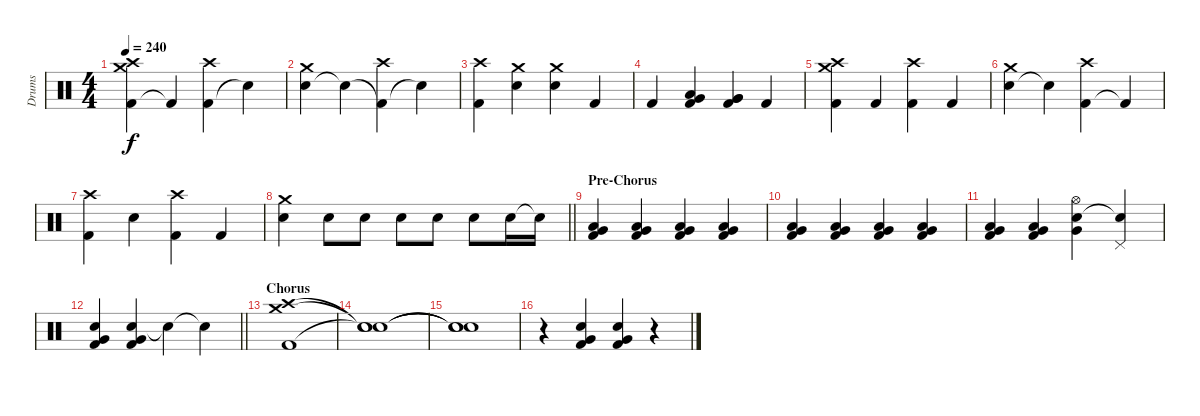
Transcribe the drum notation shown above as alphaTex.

\track ("Drums" "Drums") {instrument percussion}
\staff {score}
\articulation defaults
\ts (4 4)
\tempo 240
\clef neutral
\ks c
("Kick (hit) 2" "Crash medium (hit)" "Crash high (hit)").4{dy f} "Kick (hit) 2"{t}.4 ("Kick (hit) 2" "Crash high (hit)").4 "Snare (hit)"{t}.4 |
("Electric Snare (hit)" "Crash medium (hit)").4 "Snare (hit)"{t}.4 ("Kick (hit) 2"{t} "Crash high (hit)").4 "Snare (hit)"{t}.4 |
("Kick (hit) 2" "Crash high (hit)").4 ("Electric Snare (hit)" "Crash medium (hit)").4 ("Electric Snare (hit)" "Crash medium (hit)").4 "Kick (hit) 2".4 |
"Kick (hit) 2".4 ("Low Tom (hit)" "Very Low Tom (hit)" "Kick (hit) 2").4 ("Very Low Tom (hit)" "Very Low Tom (hit)" "Kick (hit) 2").4 "Kick (hit) 2".4 |
("Kick (hit) 2" "Crash medium (hit)" "Crash high (hit)").4 "Kick (hit) 2".4 ("Kick (hit) 2" "Crash high (hit)").4 "Kick (hit) 2".4 |
("Electric Snare (hit)" "Crash medium (hit)").4 "Snare (hit)"{t}.4 ("Kick (hit) 2" "Crash high (hit)").4 "Kick (hit) 2"{t}.4 |
("Kick (hit) 2" "Crash high (hit)").4 "Electric Snare (hit)".4 ("Kick (hit) 2" "Crash high (hit)").4 "Kick (hit) 2".4 |
\barLineRight lightlight
("Electric Snare (hit)" "Crash medium (hit)").4 "Electric Snare (hit)".8 "Electric Snare (hit)".8 "Electric Snare (hit)".8 "Electric Snare (hit)".8 "Electric Snare (hit)".8 "Electric Snare (hit)".16 "Snare (hit)"{t}.16{volume 7} |
\section ("" "Pre-Chorus")
("Very Low Tom (hit)" "Low Tom (hit)" "Kick (hit) 2").4{volume 13} ("Very Low Tom (hit)" "Low Tom (hit)" "Kick (hit) 2").4 ("Very Low Tom (hit)" "Low Tom (hit)" "Kick (hit) 2").4 ("Very Low Tom (hit)" "Low Tom (hit)" "Kick (hit) 2").4 |
("Very Low Tom (hit)" "Low Tom (hit)" "Kick (hit) 2").4 ("Very Low Tom (hit)" "Low Tom (hit)" "Kick (hit) 2").4 ("Very Low Tom (hit)" "Low Tom (hit)" "Kick (hit) 2").4 ("Very Low Tom (hit)" "Low Tom (hit)" "Kick (hit) 2").4 |
("Very Low Tom (hit)" "Low Tom (hit)" "Kick (hit) 2").4 ("Very Low Tom (hit)" "Low Tom (hit)" "Kick (hit) 2").4 ("Electric Snare (hit)" "Very Low Tom (hit)" "Hi-Hat (open)").4 ("Snare (hit)"{t} "Pedal Hi-Hat (hit)").4 |
\barLineRight lightlight
("Electric Snare (hit)" "Very Low Tom (hit)" "Kick (hit) 2").4 ("Electric Snare (hit)" "Very Low Tom (hit)" "Kick (hit) 2").4 "Snare (hit)"{t}.4 "Snare (hit)"{t}.4 |
\section ("" "Chorus")
("Kick (hit) 2" "Crash medium (hit)" "Crash high (hit)").1 |
("Snare (hit)"{t} "Snare (hit)"{t} "Snare (hit)"{t}).1 |
("Snare (hit)"{t} "Snare (hit)"{t} "Snare (hit)"{t}).1 |
r.4 ("Electric Snare (hit)" "Very Low Tom (hit)" "Kick (hit) 2").4 ("Electric Snare (hit)" "Very Low Tom (hit)" "Kick (hit) 2").4 r.4
